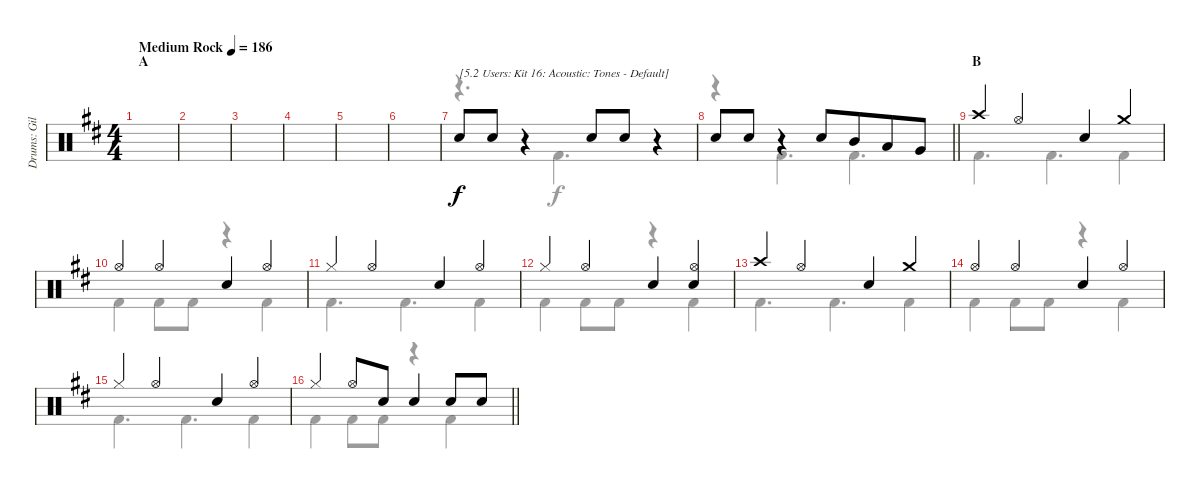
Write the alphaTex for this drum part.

\track ("Drums: Gil" "Drums: Gil") {instrument percussion}
\staff {score}
\articulation defaults
\voice
\ts (4 4)
\section ("" "A")
\tempo (186 "Medium Rock")
\clef neutral
\ks d
|
|
|
|
|
|
"Snare (hit) 2".8{txt "[5.2 Users: Kit 16: Acoustic: Tones - Default]"} "Electric Snare (hit)".8 r.4 "Snare (hit) 2".8 "Electric Snare (hit)".8 r.4 |
\barLineRight lightlight "Snare (hit) 2".8 "Electric Snare (hit)".8
r.4 "Snare (hit) 2".8 "Mid Tom (hit)".8{beam merge} "Low Tom (hit)".8 "Very Low Tom (hit)".8 |
\section ("" "B")
"Crash high (hit)".4 "Hi-Hat (open)".4 "Snare (hit) 2".4 "Crash medium (hit)".4 |
"Hi-Hat (open)".4 "Hi-Hat (open)".4 "Snare (hit) 2".4 "Hi-Hat (open)".4 |
"Hi-Hat (closed)".4 "Hi-Hat (open)".4 "Snare (hit) 2".4 "Hi-Hat (open)".4 |
"Hi-Hat (closed)".4 "Hi-Hat (open)".4 "Snare (hit) 2".4 ("Hi-Hat (open)" "Snare (hit) 2").4 |
"Crash high (hit)".4 "Hi-Hat (open)".4 "Snare (hit) 2".4 "Crash medium (hit)".4 |
"Hi-Hat (open)".4 "Hi-Hat (open)".4 "Snare (hit) 2".4 "Hi-Hat (open)".4 |
"Hi-Hat (closed)".4 "Hi-Hat (open)".4 "Snare (hit) 2".4 "Hi-Hat (open)".4 |
\barLineRight lightlight "Hi-Hat (closed)".4 "Hi-Hat (open)".8 "Snare (hit) 2".8 "Snare (hit) 2".4 "Snare (hit) 2".8 "Snare (hit) 2".8
\voice
\clef neutral
\ottava regular
\simile none
\ks d
|
|
|
|
|
|
r.4{d} "Kick (hit) 2".4{d} r.4 |
\barLineRight lightlight
r.4 "Kick (hit) 2".4{d} "Kick (hit) 2".4{d} |
"Kick (hit) 2".4{d} "Kick (hit) 2".4{d} "Kick (hit) 2".4 |
"Kick (hit) 2".4 "Kick (hit) 2".8 "Kick (hit) 2".8 r.4 "Kick (hit) 2".4 |
"Kick (hit) 2".4{d} "Kick (hit) 2".4{d} "Kick (hit) 2".4 |
"Kick (hit) 2".4 "Kick (hit) 2".8 "Kick (hit) 2".8 r.4 "Kick (hit) 2".4 |
"Kick (hit) 2".4{d} "Kick (hit) 2".4{d} "Kick (hit) 2".4 |
"Kick (hit) 2".4 "Kick (hit) 2".8 "Kick (hit) 2".8 r.4 "Kick (hit) 2".4 |
"Kick (hit) 2".4{d} "Kick (hit) 2".4{d} "Kick (hit) 2".4 |
\barLineRight lightlight "Kick (hit) 2".4 "Kick (hit) 2".8 "Kick (hit) 2".8
r.4 "Kick (hit) 2".4
